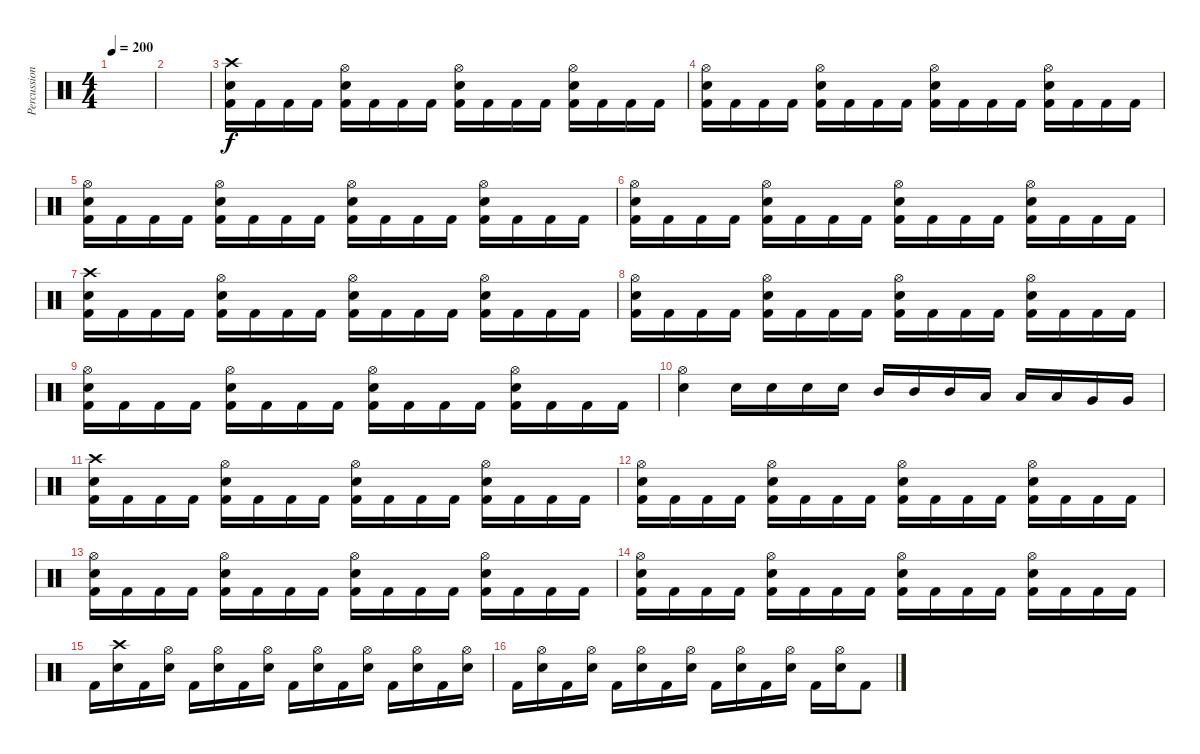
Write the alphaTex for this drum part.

\track ("Percussion" "Percussion") {instrument percussion}
\staff {score}
\articulation defaults
\ts (4 4)
\tempo 200
\clef neutral
\ks c
|
|
("Crash high (hit)" "Snare (hit) 2" "Kick (hit) 2").16 "Kick (hit) 2".16 "Kick (hit) 2".16 "Kick (hit) 2".16 ("Hi-Hat (open)" "Snare (hit) 2" "Kick (hit) 2").16 "Kick (hit) 2".16 "Kick (hit) 2".16 "Kick (hit) 2".16 ("Hi-Hat (open)" "Snare (hit) 2" "Kick (hit) 2").16 "Kick (hit) 2".16 "Kick (hit) 2".16 "Kick (hit) 2".16 ("Hi-Hat (open)" "Snare (hit) 2" "Kick (hit) 2").16 "Kick (hit) 2".16 "Kick (hit) 2".16 "Kick (hit) 2".16 |
("Hi-Hat (open)" "Snare (hit) 2" "Kick (hit) 2").16 "Kick (hit) 2".16 "Kick (hit) 2".16 "Kick (hit) 2".16 ("Hi-Hat (open)" "Snare (hit) 2" "Kick (hit) 2").16 "Kick (hit) 2".16 "Kick (hit) 2".16 "Kick (hit) 2".16 ("Hi-Hat (open)" "Snare (hit) 2" "Kick (hit) 2").16 "Kick (hit) 2".16 "Kick (hit) 2".16 "Kick (hit) 2".16 ("Hi-Hat (open)" "Snare (hit) 2" "Kick (hit) 2").16 "Kick (hit) 2".16 "Kick (hit) 2".16 "Kick (hit) 2".16 |
("Hi-Hat (open)" "Snare (hit) 2" "Kick (hit) 2").16 "Kick (hit) 2".16 "Kick (hit) 2".16 "Kick (hit) 2".16 ("Hi-Hat (open)" "Snare (hit) 2" "Kick (hit) 2").16 "Kick (hit) 2".16 "Kick (hit) 2".16 "Kick (hit) 2".16 ("Hi-Hat (open)" "Snare (hit) 2" "Kick (hit) 2").16 "Kick (hit) 2".16 "Kick (hit) 2".16 "Kick (hit) 2".16 ("Hi-Hat (open)" "Snare (hit) 2" "Kick (hit) 2").16 "Kick (hit) 2".16 "Kick (hit) 2".16 "Kick (hit) 2".16 |
("Hi-Hat (open)" "Snare (hit) 2" "Kick (hit) 2").16 "Kick (hit) 2".16 "Kick (hit) 2".16 "Kick (hit) 2".16 ("Hi-Hat (open)" "Snare (hit) 2" "Kick (hit) 2").16 "Kick (hit) 2".16 "Kick (hit) 2".16 "Kick (hit) 2".16 ("Hi-Hat (open)" "Snare (hit) 2" "Kick (hit) 2").16 "Kick (hit) 2".16 "Kick (hit) 2".16 "Kick (hit) 2".16 ("Hi-Hat (open)" "Snare (hit) 2" "Kick (hit) 2").16 "Kick (hit) 2".16 "Kick (hit) 2".16 "Kick (hit) 2".16 |
("Crash high (hit)" "Snare (hit) 2" "Kick (hit) 2").16 "Kick (hit) 2".16 "Kick (hit) 2".16 "Kick (hit) 2".16 ("Hi-Hat (open)" "Snare (hit) 2" "Kick (hit) 2").16 "Kick (hit) 2".16 "Kick (hit) 2".16 "Kick (hit) 2".16 ("Hi-Hat (open)" "Snare (hit) 2" "Kick (hit) 2").16 "Kick (hit) 2".16 "Kick (hit) 2".16 "Kick (hit) 2".16 ("Hi-Hat (open)" "Snare (hit) 2" "Kick (hit) 2").16 "Kick (hit) 2".16 "Kick (hit) 2".16 "Kick (hit) 2".16 |
("Hi-Hat (open)" "Snare (hit) 2" "Kick (hit) 2").16 "Kick (hit) 2".16 "Kick (hit) 2".16 "Kick (hit) 2".16 ("Hi-Hat (open)" "Snare (hit) 2" "Kick (hit) 2").16 "Kick (hit) 2".16 "Kick (hit) 2".16 "Kick (hit) 2".16 ("Hi-Hat (open)" "Snare (hit) 2" "Kick (hit) 2").16 "Kick (hit) 2".16 "Kick (hit) 2".16 "Kick (hit) 2".16 ("Hi-Hat (open)" "Snare (hit) 2" "Kick (hit) 2").16 "Kick (hit) 2".16 "Kick (hit) 2".16 "Kick (hit) 2".16 |
("Hi-Hat (open)" "Snare (hit) 2" "Kick (hit) 2").16 "Kick (hit) 2".16 "Kick (hit) 2".16 "Kick (hit) 2".16 ("Hi-Hat (open)" "Snare (hit) 2" "Kick (hit) 2").16 "Kick (hit) 2".16 "Kick (hit) 2".16 "Kick (hit) 2".16 ("Hi-Hat (open)" "Snare (hit) 2" "Kick (hit) 2").16 "Kick (hit) 2".16 "Kick (hit) 2".16 "Kick (hit) 2".16 ("Hi-Hat (open)" "Snare (hit) 2" "Kick (hit) 2").16 "Kick (hit) 2".16 "Kick (hit) 2".16 "Kick (hit) 2".16 |
("Hi-Hat (open)" "Snare (hit) 2").4 "Snare (hit) 2".16 "Snare (hit) 2".16 "Snare (hit) 2".16 "Snare (hit) 2".16 "Mid Tom (hit)".16 "Mid Tom (hit)".16 "Mid Tom (hit)".16 "Low Tom (hit)".16 "Low Tom (hit)".16 "Low Tom (hit)".16 "Very Low Tom (hit)".16 "Very Low Tom (hit)".16 |
("Crash high (hit)" "Snare (hit) 2" "Kick (hit) 2").16 "Kick (hit) 2".16 "Kick (hit) 2".16 "Kick (hit) 2".16 ("Hi-Hat (open)" "Snare (hit) 2" "Kick (hit) 2").16 "Kick (hit) 2".16 "Kick (hit) 2".16 "Kick (hit) 2".16 ("Hi-Hat (open)" "Snare (hit) 2" "Kick (hit) 2").16 "Kick (hit) 2".16 "Kick (hit) 2".16 "Kick (hit) 2".16 ("Hi-Hat (open)" "Snare (hit) 2" "Kick (hit) 2").16 "Kick (hit) 2".16 "Kick (hit) 2".16 "Kick (hit) 2".16 |
("Hi-Hat (open)" "Snare (hit) 2" "Kick (hit) 2").16 "Kick (hit) 2".16 "Kick (hit) 2".16 "Kick (hit) 2".16 ("Hi-Hat (open)" "Snare (hit) 2" "Kick (hit) 2").16 "Kick (hit) 2".16 "Kick (hit) 2".16 "Kick (hit) 2".16 ("Hi-Hat (open)" "Snare (hit) 2" "Kick (hit) 2").16 "Kick (hit) 2".16 "Kick (hit) 2".16 "Kick (hit) 2".16 ("Hi-Hat (open)" "Snare (hit) 2" "Kick (hit) 2").16 "Kick (hit) 2".16 "Kick (hit) 2".16 "Kick (hit) 2".16 |
("Hi-Hat (open)" "Snare (hit) 2" "Kick (hit) 2").16 "Kick (hit) 2".16 "Kick (hit) 2".16 "Kick (hit) 2".16 ("Hi-Hat (open)" "Snare (hit) 2" "Kick (hit) 2").16 "Kick (hit) 2".16 "Kick (hit) 2".16 "Kick (hit) 2".16 ("Hi-Hat (open)" "Snare (hit) 2" "Kick (hit) 2").16 "Kick (hit) 2".16 "Kick (hit) 2".16 "Kick (hit) 2".16 ("Hi-Hat (open)" "Snare (hit) 2" "Kick (hit) 2").16 "Kick (hit) 2".16 "Kick (hit) 2".16 "Kick (hit) 2".16 |
("Hi-Hat (open)" "Snare (hit) 2" "Kick (hit) 2").16 "Kick (hit) 2".16 "Kick (hit) 2".16 "Kick (hit) 2".16 ("Hi-Hat (open)" "Snare (hit) 2" "Kick (hit) 2").16 "Kick (hit) 2".16 "Kick (hit) 2".16 "Kick (hit) 2".16 ("Hi-Hat (open)" "Snare (hit) 2" "Kick (hit) 2").16 "Kick (hit) 2".16 "Kick (hit) 2".16 "Kick (hit) 2".16 ("Hi-Hat (open)" "Snare (hit) 2" "Kick (hit) 2").16 "Kick (hit) 2".16 "Kick (hit) 2".16 "Kick (hit) 2".16 |
"Kick (hit) 2".16 ("Crash high (hit)" "Snare (hit) 2").16 "Kick (hit) 2".16 ("Hi-Hat (open)" "Snare (hit) 2").16 "Kick (hit) 2".16 ("Hi-Hat (open)" "Snare (hit) 2").16 "Kick (hit) 2".16 ("Hi-Hat (open)" "Snare (hit) 2").16 "Kick (hit) 2".16 ("Hi-Hat (open)" "Snare (hit) 2").16 "Kick (hit) 2".16 ("Hi-Hat (open)" "Snare (hit) 2").16 "Kick (hit) 2".16 ("Hi-Hat (open)" "Snare (hit) 2").16 "Kick (hit) 2".16 ("Hi-Hat (open)" "Snare (hit) 2").16 |
"Kick (hit) 2".16 ("Hi-Hat (open)" "Snare (hit) 2").16 "Kick (hit) 2".16 ("Hi-Hat (open)" "Snare (hit) 2").16 "Kick (hit) 2".16 ("Hi-Hat (open)" "Snare (hit) 2").16 "Kick (hit) 2".16 ("Hi-Hat (open)" "Snare (hit) 2").16 "Kick (hit) 2".16 ("Hi-Hat (open)" "Snare (hit) 2").16 "Kick (hit) 2".16 ("Hi-Hat (open)" "Snare (hit) 2").16 "Kick (hit) 2".16 ("Hi-Hat (open)" "Snare (hit) 2").16 "Kick (hit) 2".8
